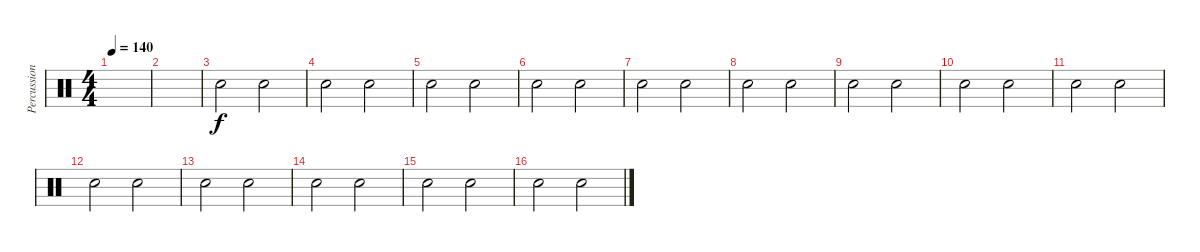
\track ("Percussions" "Percussion") {instrument percussion}
\staff {score}
\articulation defaults
\ts (4 4)
\tempo 140
\clef neutral
\ks c
|
|
"Hand Clap (hit)".2 "Hand Clap (hit)".2 |
"Hand Clap (hit)".2 "Hand Clap (hit)".2 |
"Hand Clap (hit)".2 "Hand Clap (hit)".2 |
"Hand Clap (hit)".2 "Hand Clap (hit)".2 |
"Hand Clap (hit)".2 "Hand Clap (hit)".2 |
"Hand Clap (hit)".2 "Hand Clap (hit)".2 |
"Hand Clap (hit)".2 "Hand Clap (hit)".2 |
"Hand Clap (hit)".2 "Hand Clap (hit)".2 |
"Hand Clap (hit)".2 "Hand Clap (hit)".2 |
"Hand Clap (hit)".2 "Hand Clap (hit)".2 |
"Hand Clap (hit)".2 "Hand Clap (hit)".2 |
"Hand Clap (hit)".2 "Hand Clap (hit)".2 |
"Hand Clap (hit)".2 "Hand Clap (hit)".2 |
"Hand Clap (hit)".2 "Hand Clap (hit)".2
